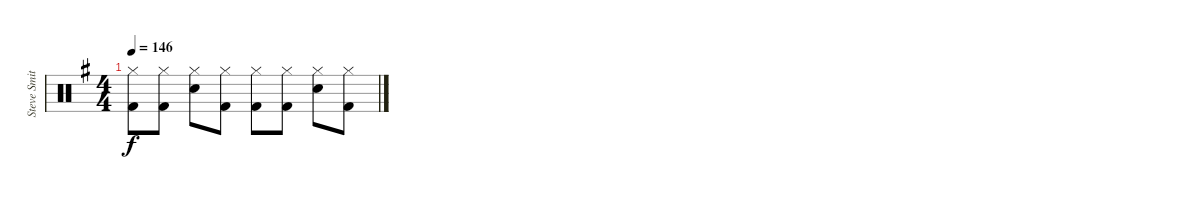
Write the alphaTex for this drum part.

\track ("Steve Smith" "Steve Smit") {instrument percussion}
\staff {score}
\articulation defaults
\ts (4 4)
\tempo 146
\clef neutral
\ks g
("Hi-Hat (closed)" "Kick (hit) 2").8{dy f} ("Hi-Hat (closed)" "Kick (hit) 2").8 ("Hi-Hat (closed)" "Snare (hit) 2").8 ("Hi-Hat (closed)" "Kick (hit) 2").8 ("Hi-Hat (closed)" "Kick (hit) 2").8 ("Hi-Hat (closed)" "Kick (hit) 2").8 ("Hi-Hat (closed)" "Snare (hit) 2").8 ("Hi-Hat (closed)" "Kick (hit) 2").8
